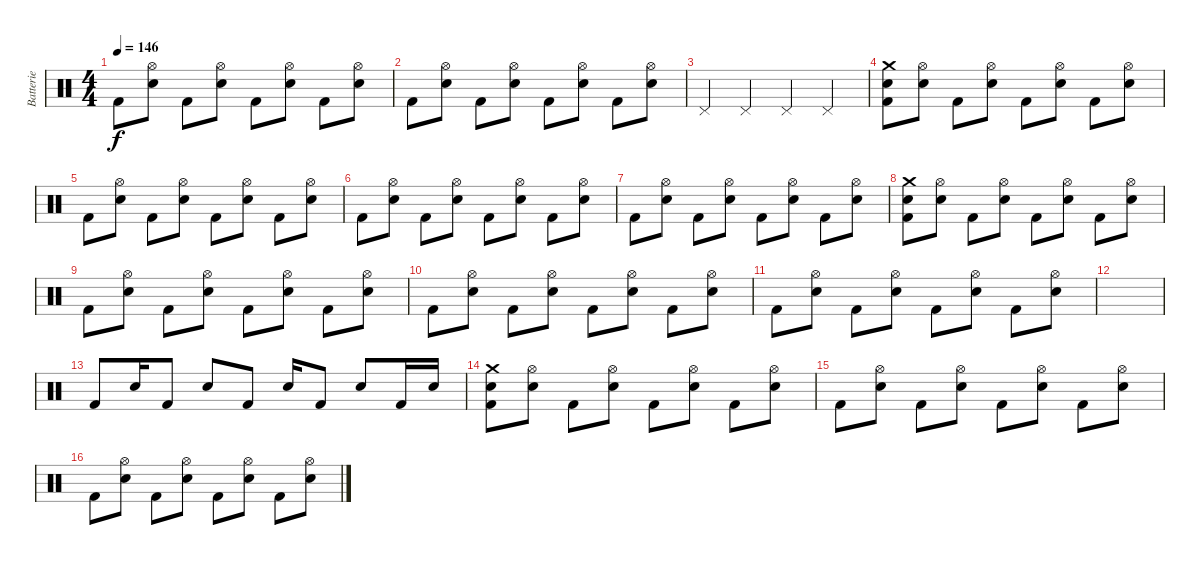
\track ("Batterie" "Batterie") {instrument percussion}
\staff {score}
\articulation defaults
\ts (4 4)
\tempo 146
\clef neutral
\ks c "Kick (hit) 2".8{dy f}
("Electric Snare (hit)" "Hi-Hat (open)").8 "Kick (hit) 2".8 ("Electric Snare (hit)" "Hi-Hat (open)").8 "Kick (hit) 2".8 ("Electric Snare (hit)" "Hi-Hat (open)").8 "Kick (hit) 2".8 ("Electric Snare (hit)" "Hi-Hat (open)").8 |
"Kick (hit) 2".8 ("Electric Snare (hit)" "Hi-Hat (open)").8 "Kick (hit) 2".8 ("Electric Snare (hit)" "Hi-Hat (open)").8 "Kick (hit) 2".8 ("Electric Snare (hit)" "Hi-Hat (open)").8 "Kick (hit) 2".8 ("Electric Snare (hit)" "Hi-Hat (open)").8 |
"Pedal Hi-Hat (hit)".4 "Pedal Hi-Hat (hit)".4 "Pedal Hi-Hat (hit)".4 "Pedal Hi-Hat (hit)".4 |
("Kick (hit) 2" "Electric Snare (hit)" "Crash medium (hit)").8 ("Electric Snare (hit)" "Hi-Hat (open)").8 "Kick (hit) 2".8 ("Electric Snare (hit)" "Hi-Hat (open)").8 "Kick (hit) 2".8 ("Electric Snare (hit)" "Hi-Hat (open)").8 "Kick (hit) 2".8 ("Electric Snare (hit)" "Hi-Hat (open)").8 |
"Kick (hit) 2".8 ("Electric Snare (hit)" "Hi-Hat (open)").8 "Kick (hit) 2".8 ("Electric Snare (hit)" "Hi-Hat (open)").8 "Kick (hit) 2".8 ("Electric Snare (hit)" "Hi-Hat (open)").8 "Kick (hit) 2".8 ("Electric Snare (hit)" "Hi-Hat (open)").8 |
"Kick (hit) 2".8 ("Electric Snare (hit)" "Hi-Hat (open)").8 "Kick (hit) 2".8 ("Electric Snare (hit)" "Hi-Hat (open)").8 "Kick (hit) 2".8 ("Electric Snare (hit)" "Hi-Hat (open)").8 "Kick (hit) 2".8 ("Electric Snare (hit)" "Hi-Hat (open)").8 |
"Kick (hit) 2".8 ("Electric Snare (hit)" "Hi-Hat (open)").8 "Kick (hit) 2".8 ("Electric Snare (hit)" "Hi-Hat (open)").8 "Kick (hit) 2".8 ("Electric Snare (hit)" "Hi-Hat (open)").8 "Kick (hit) 2".8 ("Electric Snare (hit)" "Hi-Hat (open)").8 |
("Kick (hit) 2" "Electric Snare (hit)" "Crash medium (hit)").8 ("Electric Snare (hit)" "Hi-Hat (open)").8 "Kick (hit) 2".8 ("Electric Snare (hit)" "Hi-Hat (open)").8 "Kick (hit) 2".8 ("Electric Snare (hit)" "Hi-Hat (open)").8 "Kick (hit) 2".8 ("Electric Snare (hit)" "Hi-Hat (open)").8 |
"Kick (hit) 2".8 ("Electric Snare (hit)" "Hi-Hat (open)").8 "Kick (hit) 2".8 ("Electric Snare (hit)" "Hi-Hat (open)").8 "Kick (hit) 2".8 ("Electric Snare (hit)" "Hi-Hat (open)").8 "Kick (hit) 2".8 ("Electric Snare (hit)" "Hi-Hat (open)").8 |
"Kick (hit) 2".8 ("Electric Snare (hit)" "Hi-Hat (open)").8 "Kick (hit) 2".8 ("Electric Snare (hit)" "Hi-Hat (open)").8 "Kick (hit) 2".8 ("Electric Snare (hit)" "Hi-Hat (open)").8 "Kick (hit) 2".8 ("Electric Snare (hit)" "Hi-Hat (open)").8 |
"Kick (hit) 2".8 ("Electric Snare (hit)" "Hi-Hat (open)").8 "Kick (hit) 2".8 ("Electric Snare (hit)" "Hi-Hat (open)").8 "Kick (hit) 2".8 ("Electric Snare (hit)" "Hi-Hat (open)").8 "Kick (hit) 2".8 ("Electric Snare (hit)" "Hi-Hat (open)").8 |
|
"Kick (hit) 2".8 "Electric Snare (hit)".16 "Kick (hit) 2".8 "Electric Snare (hit)".8 "Kick (hit) 2".8 "Electric Snare (hit)".16 "Kick (hit) 2".8 "Electric Snare (hit)".8 "Kick (hit) 2".16 "Electric Snare (hit)".16 |
("Kick (hit) 2" "Electric Snare (hit)" "Crash medium (hit)").8 ("Electric Snare (hit)" "Hi-Hat (open)").8 "Kick (hit) 2".8 ("Electric Snare (hit)" "Hi-Hat (open)").8 "Kick (hit) 2".8 ("Electric Snare (hit)" "Hi-Hat (open)").8 "Kick (hit) 2".8 ("Electric Snare (hit)" "Hi-Hat (open)").8 |
"Kick (hit) 2".8 ("Electric Snare (hit)" "Hi-Hat (open)").8 "Kick (hit) 2".8 ("Electric Snare (hit)" "Hi-Hat (open)").8 "Kick (hit) 2".8 ("Electric Snare (hit)" "Hi-Hat (open)").8 "Kick (hit) 2".8 ("Electric Snare (hit)" "Hi-Hat (open)").8 |
"Kick (hit) 2".8 ("Electric Snare (hit)" "Hi-Hat (open)").8 "Kick (hit) 2".8 ("Electric Snare (hit)" "Hi-Hat (open)").8 "Kick (hit) 2".8 ("Electric Snare (hit)" "Hi-Hat (open)").8 "Kick (hit) 2".8 ("Electric Snare (hit)" "Hi-Hat (open)").8
